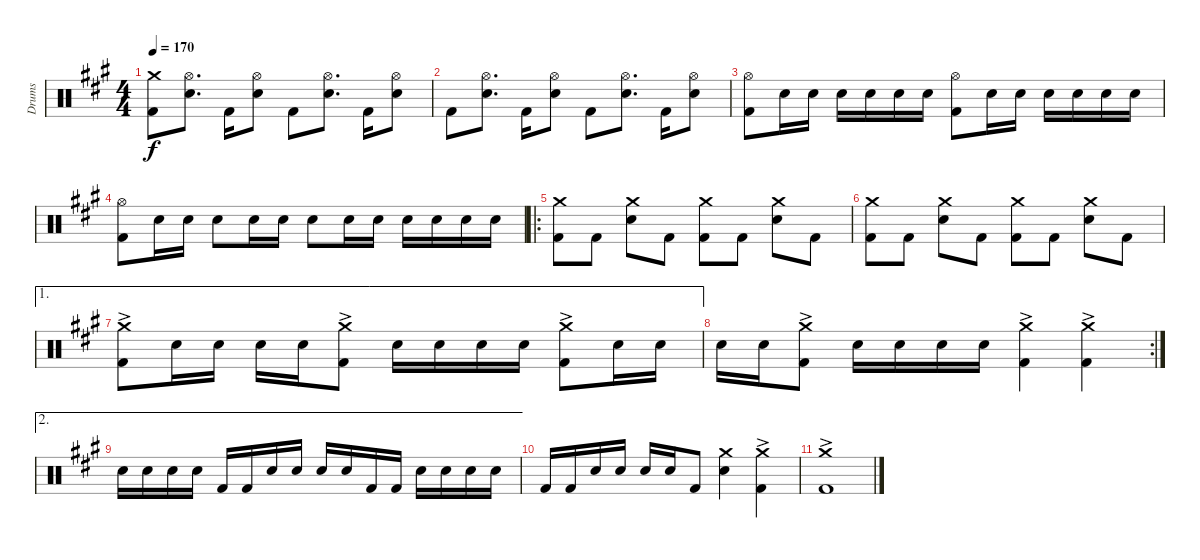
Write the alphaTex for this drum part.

\track ("Drums" "Drums") {instrument percussion}
\staff {score}
\articulation defaults
\ts (4 4)
\tempo 170
\clef neutral
\ks a
("Crash medium (hit)" "Kick (hit) 2").8{dy f} ("Hi-Hat (open)" "Electric Snare (hit)").8{d} "Kick (hit) 2".16 ("Hi-Hat (open)" "Electric Snare (hit)").8 "Kick (hit) 2".8 ("Hi-Hat (open)" "Electric Snare (hit)").8{d} "Kick (hit) 2".16 ("Hi-Hat (open)" "Electric Snare (hit)").8 |
"Kick (hit) 2".8 ("Hi-Hat (open)" "Electric Snare (hit)").8{d} "Kick (hit) 2".16 ("Hi-Hat (open)" "Electric Snare (hit)").8 "Kick (hit) 2".8 ("Hi-Hat (open)" "Electric Snare (hit)").8{d} "Kick (hit) 2".16 ("Hi-Hat (open)" "Electric Snare (hit)").8 |
("Hi-Hat (open)" "Kick (hit) 2").8 "Electric Snare (hit)".16 "Electric Snare (hit)".16 "Electric Snare (hit)".16 "Electric Snare (hit)".16 "Electric Snare (hit)".16 "Electric Snare (hit)".16 ("Hi-Hat (open)" "Kick (hit) 2").8 "Electric Snare (hit)".16 "Electric Snare (hit)".16 "Electric Snare (hit)".16 "Electric Snare (hit)".16 "Electric Snare (hit)".16 "Electric Snare (hit)".16 |
("Hi-Hat (open)" "Kick (hit) 2").8 "Electric Snare (hit)".16 "Electric Snare (hit)".16 "Electric Snare (hit)".8 "Electric Snare (hit)".16 "Electric Snare (hit)".16 "Electric Snare (hit)".8 "Electric Snare (hit)".16 "Electric Snare (hit)".16 "Electric Snare (hit)".16 "Electric Snare (hit)".16 "Electric Snare (hit)".16 "Electric Snare (hit)".16 |
\ro
("Crash medium (hit)" "Kick (hit) 2").8 "Kick (hit) 2".8 ("Crash medium (hit)" "Electric Snare (hit)").8 "Kick (hit) 2".8 ("Crash medium (hit)" "Kick (hit) 2").8 "Kick (hit) 2".8 ("Crash medium (hit)" "Electric Snare (hit)").8 "Kick (hit) 2".8 |
("Crash medium (hit)" "Kick (hit) 2").8 "Kick (hit) 2".8 ("Crash medium (hit)" "Electric Snare (hit)").8 "Kick (hit) 2".8 ("Crash medium (hit)" "Kick (hit) 2").8 "Kick (hit) 2".8 ("Crash medium (hit)" "Electric Snare (hit)").8 "Kick (hit) 2".8 |
\ae 1
("Crash medium (hit)" "Kick (hit) 2"{ac}).8 "Electric Snare (hit)".16 "Electric Snare (hit)".16 "Electric Snare (hit)".16 "Electric Snare (hit)".16 ("Crash medium (hit)" "Kick (hit) 2"{ac}).8 "Electric Snare (hit)".16 "Electric Snare (hit)".16 "Electric Snare (hit)".16 "Electric Snare (hit)".16 ("Crash medium (hit)" "Kick (hit) 2"{ac}).8 "Electric Snare (hit)".16 "Electric Snare (hit)".16 |
\rc 2 "Electric Snare (hit)".16 "Electric Snare (hit)".16
("Crash medium (hit)" "Kick (hit) 2"{ac}).8 "Electric Snare (hit)".16 "Electric Snare (hit)".16 "Electric Snare (hit)".16 "Electric Snare (hit)".16 ("Crash medium (hit)" "Kick (hit) 2"{ac}).4 ("Crash medium (hit)" "Kick (hit) 2"{ac}).4 |
\ae 2 "Electric Snare (hit)".16 "Electric Snare (hit)".16 "Electric Snare (hit)".16 "Electric Snare (hit)".16 "Kick (hit) 2".16 "Kick (hit) 2".16 "Electric Snare (hit)".16 "Electric Snare (hit)".16 "Electric Snare (hit)".16 "Electric Snare (hit)".16 "Kick (hit) 2".16 "Kick (hit) 2".16 "Electric Snare (hit)".16 "Electric Snare (hit)".16 "Electric Snare (hit)".16 "Electric Snare (hit)".16
|
"Kick (hit) 2".16 "Kick (hit) 2".16 "Electric Snare (hit)".16 "Electric Snare (hit)".16 "Electric Snare (hit)".16 "Electric Snare (hit)".16 "Kick (hit) 2".8 ("Crash medium (hit)" "Electric Snare (hit)").4 ("Crash medium (hit)" "Kick (hit) 2"{ac}).4 |
("Crash medium (hit)" "Kick (hit) 2"{ac}).1
